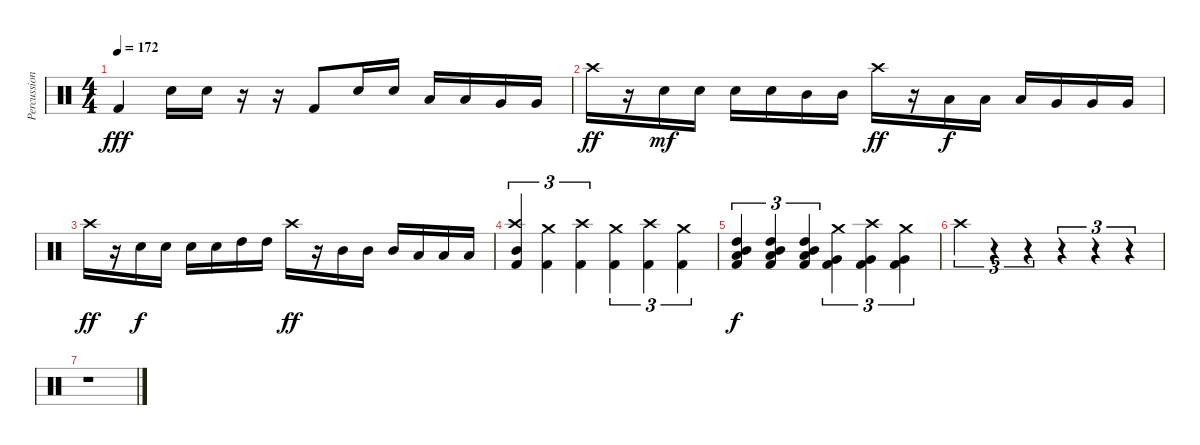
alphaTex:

\track ("Percussion" "Percussion") {instrument percussion}
\staff {score}
\articulation defaults
\ts (4 4)
\tempo 172
\clef neutral
\ks c "Kick (hit) 2".4{dy fff} "Electric Snare (hit)".16 "Electric Snare (hit)".16
r.16 r.16 "Kick (hit) 2".8 "Electric Snare (hit)".16 "Electric Snare (hit)".16 "Low Tom (hit)".16 "Low Tom (hit)".16 "Very Low Tom (hit)".16 "Very Low Tom (hit)".16 |
"Crash high (hit)".16{dy ff} r.16 "Electric Snare (hit)".16{dy mf} "Electric Snare (hit)".16 "Electric Snare (hit)".16 "Electric Snare (hit)".16 "Mid Tom (hit)".16 "Mid Tom (hit)".16 "Crash high (hit)".16{dy ff} r.16 "Low Tom (hit)".16{dy f} "Low Tom (hit)".16 "Low Tom (hit)".16 "Very Low Tom (hit)".16 "Very Low Tom (hit)".16 "Very Low Tom (hit)".16 |
"Crash high (hit)".16{dy ff} r.16 "Electric Snare (hit)".16{dy f} "Electric Snare (hit)".16 "Electric Snare (hit)".16 "Electric Snare (hit)".16 "High Tom (hit)".16 "High Tom (hit)".16 "Crash high (hit)".16{dy ff} r.16 "Mid Tom (hit)".16 "Mid Tom (hit)".16 "Mid Tom (hit)".16 "Low Tom (hit)".16 "Low Tom (hit)".16 "Low Tom (hit)".16 |
("Crash high (hit)" "Mid Tom (hit)" "Kick (hit) 2").4{tu (3 2)} ("Crash medium (hit)" "Kick (hit) 2").4{tu (3 2)} ("Crash high (hit)" "Kick (hit) 2").4{tu (3 2)} ("Crash medium (hit)" "Kick (hit) 2").4{tu (3 2)} ("Crash high (hit)" "Kick (hit) 2").4{tu (3 2)} ("Crash medium (hit)" "Kick (hit) 2").4{tu (3 2)} |
("High Tom (hit)" "Mid Tom (hit)" "Low Tom (hit)" "Kick (hit) 2").4{tu (3 2) dy f} ("High Tom (hit)" "Mid Tom (hit)" "Low Tom (hit)" "Kick (hit) 2").4{tu (3 2)} ("High Tom (hit)" "Mid Tom (hit)" "Low Tom (hit)" "Kick (hit) 2").4{tu (3 2)} ("Crash medium (hit)" "Very Low Tom (hit)" "Kick (hit) 2").4{tu (3 2)} ("Crash high (hit)" "Very Low Tom (hit)" "Kick (hit) 2").4{tu (3 2)} ("Crash medium (hit)" "Very Low Tom (hit)" "Kick (hit) 2").4{tu (3 2)} |
"Crash high (hit)".4{tu (3 2)} r.4{tu (3 2)} r.4{tu (3 2)} r.4{tu (3 2)} r.4{tu (3 2)} r.4{tu (3 2)} |
r.1
